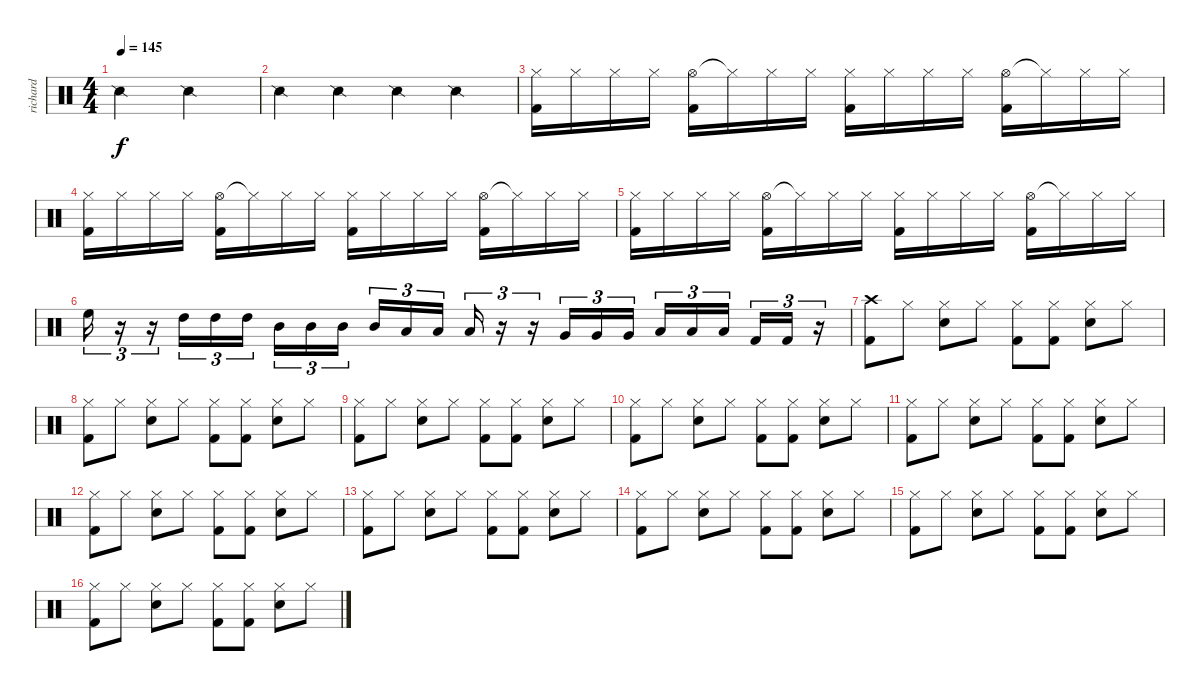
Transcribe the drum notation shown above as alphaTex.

\track ("richard" "richard") {instrument percussion}
\staff {score}
\articulation defaults
\ts (4 4)
\tempo 145
\clef neutral
\ks c "Snare (side stick) 2".2{dy f} "Snare (side stick) 2".2
|
"Snare (side stick) 2".4 "Snare (side stick) 2".4 "Snare (side stick) 2".4 "Snare (side stick) 2".4 |
("Hi-Hat (closed)" "Kick (hit) 2").16 "Hi-Hat (closed)".16 "Hi-Hat (closed)".16 "Hi-Hat (closed)".16 ("Hi-Hat (open)" "Kick (hit) 2").16 "Hi-Hat (closed)"{t}.16 "Hi-Hat (closed)".16 "Hi-Hat (closed)".16 ("Hi-Hat (closed)" "Kick (hit) 2").16 "Hi-Hat (closed)".16 "Hi-Hat (closed)".16 "Hi-Hat (closed)".16 ("Hi-Hat (open)" "Kick (hit) 2").16 "Hi-Hat (closed)"{t}.16 "Hi-Hat (closed)".16 "Hi-Hat (closed)".16 |
("Hi-Hat (closed)" "Kick (hit) 2").16 "Hi-Hat (closed)".16 "Hi-Hat (closed)".16 "Hi-Hat (closed)".16 ("Hi-Hat (open)" "Kick (hit) 2").16 "Hi-Hat (closed)"{t}.16 "Hi-Hat (closed)".16 "Hi-Hat (closed)".16 ("Hi-Hat (closed)" "Kick (hit) 2").16 "Hi-Hat (closed)".16 "Hi-Hat (closed)".16 "Hi-Hat (closed)".16 ("Hi-Hat (open)" "Kick (hit) 2").16 "Hi-Hat (closed)"{t}.16 "Hi-Hat (closed)".16 "Hi-Hat (closed)".16 |
("Hi-Hat (closed)" "Kick (hit) 2").16 "Hi-Hat (closed)".16 "Hi-Hat (closed)".16 "Hi-Hat (closed)".16 ("Hi-Hat (open)" "Kick (hit) 2").16 "Hi-Hat (closed)"{t}.16 "Hi-Hat (closed)".16 "Hi-Hat (closed)".16 ("Hi-Hat (closed)" "Kick (hit) 2").16 "Hi-Hat (closed)".16 "Hi-Hat (closed)".16 "Hi-Hat (closed)".16 ("Hi-Hat (open)" "Kick (hit) 2").16 "Hi-Hat (closed)"{t}.16 "Hi-Hat (closed)".16 "Hi-Hat (closed)".16 |
"High Floor Tom (hit)".16{tu (3 2)} r.16{tu (3 2)} r.16{tu (3 2)} "High Tom (hit)".16{tu (3 2)} "High Tom (hit)".16{tu (3 2)} "High Tom (hit)".16{tu (3 2)} "Mid Tom (hit)".16{tu (3 2)} "Mid Tom (hit)".16{tu (3 2)} "Mid Tom (hit)".16{tu (3 2)} "Mid Tom (hit)".16{tu (3 2)} "Low Tom (hit)".16{tu (3 2)} "Low Tom (hit)".16{tu (3 2)} "Low Tom (hit)".16{tu (3 2)} r.16{tu (3 2)} r.16{tu (3 2)} "Very Low Tom (hit)".16{tu (3 2)} "Very Low Tom (hit)".16{tu (3 2)} "Very Low Tom (hit)".16{tu (3 2)} "Low Floor Tom (hit)".16{tu (3 2)} "Low Floor Tom (hit)".16{tu (3 2)} "Low Floor Tom (hit)".16{tu (3 2)} "Kick (hit) 2".16{tu (3 2)} "Kick (hit) 2".16{tu (3 2)} r.16{tu (3 2)} |
("Kick (hit) 2" "Crash high (hit)").8 "Hi-Hat (closed)".8 ("Hi-Hat (closed)" "Snare (hit) 2").8 "Hi-Hat (closed)".8 ("Hi-Hat (closed)" "Kick (hit) 2").8 ("Hi-Hat (closed)" "Kick (hit) 2").8 ("Hi-Hat (closed)" "Snare (hit) 2").8 "Hi-Hat (closed)".8 |
("Kick (hit) 2" "Hi-Hat (closed)").8 "Hi-Hat (closed)".8 ("Hi-Hat (closed)" "Snare (hit) 2").8 "Hi-Hat (closed)".8 ("Hi-Hat (closed)" "Kick (hit) 2").8 ("Hi-Hat (closed)" "Kick (hit) 2").8 ("Hi-Hat (closed)" "Snare (hit) 2").8 "Hi-Hat (closed)".8 |
("Kick (hit) 2" "Hi-Hat (closed)").8 "Hi-Hat (closed)".8 ("Hi-Hat (closed)" "Snare (hit) 2").8 "Hi-Hat (closed)".8 ("Hi-Hat (closed)" "Kick (hit) 2").8 ("Hi-Hat (closed)" "Kick (hit) 2").8 ("Hi-Hat (closed)" "Snare (hit) 2").8 "Hi-Hat (closed)".8 |
("Kick (hit) 2" "Hi-Hat (closed)").8 "Hi-Hat (closed)".8 ("Hi-Hat (closed)" "Snare (hit) 2").8 "Hi-Hat (closed)".8 ("Hi-Hat (closed)" "Kick (hit) 2").8 ("Hi-Hat (closed)" "Kick (hit) 2").8 ("Hi-Hat (closed)" "Snare (hit) 2").8 "Hi-Hat (closed)".8 |
("Kick (hit) 2" "Hi-Hat (closed)").8 "Hi-Hat (closed)".8 ("Hi-Hat (closed)" "Snare (hit) 2").8 "Hi-Hat (closed)".8 ("Hi-Hat (closed)" "Kick (hit) 2").8 ("Hi-Hat (closed)" "Kick (hit) 2").8 ("Hi-Hat (closed)" "Snare (hit) 2").8 "Hi-Hat (closed)".8 |
("Kick (hit) 2" "Hi-Hat (closed)").8 "Hi-Hat (closed)".8 ("Hi-Hat (closed)" "Snare (hit) 2").8 "Hi-Hat (closed)".8 ("Hi-Hat (closed)" "Kick (hit) 2").8 ("Hi-Hat (closed)" "Kick (hit) 2").8 ("Hi-Hat (closed)" "Snare (hit) 2").8 "Hi-Hat (closed)".8 |
("Kick (hit) 2" "Hi-Hat (closed)").8 "Hi-Hat (closed)".8 ("Hi-Hat (closed)" "Snare (hit) 2").8 "Hi-Hat (closed)".8 ("Hi-Hat (closed)" "Kick (hit) 2").8 ("Hi-Hat (closed)" "Kick (hit) 2").8 ("Hi-Hat (closed)" "Snare (hit) 2").8 "Hi-Hat (closed)".8 |
("Kick (hit) 2" "Hi-Hat (closed)").8 "Hi-Hat (closed)".8 ("Hi-Hat (closed)" "Snare (hit) 2").8 "Hi-Hat (closed)".8 ("Hi-Hat (closed)" "Kick (hit) 2").8 ("Hi-Hat (closed)" "Kick (hit) 2").8 ("Hi-Hat (closed)" "Snare (hit) 2").8 "Hi-Hat (closed)".8 |
("Kick (hit) 2" "Hi-Hat (closed)").8 "Hi-Hat (closed)".8 ("Hi-Hat (closed)" "Snare (hit) 2").8 "Hi-Hat (closed)".8 ("Hi-Hat (closed)" "Kick (hit) 2").8 ("Hi-Hat (closed)" "Kick (hit) 2").8 ("Hi-Hat (closed)" "Snare (hit) 2").8 "Hi-Hat (closed)".8 |
("Kick (hit) 2" "Hi-Hat (closed)").8 "Hi-Hat (closed)".8 ("Hi-Hat (closed)" "Snare (hit) 2").8 "Hi-Hat (closed)".8 ("Hi-Hat (closed)" "Kick (hit) 2").8 ("Hi-Hat (closed)" "Kick (hit) 2").8 ("Hi-Hat (closed)" "Snare (hit) 2").8 "Hi-Hat (closed)".8
